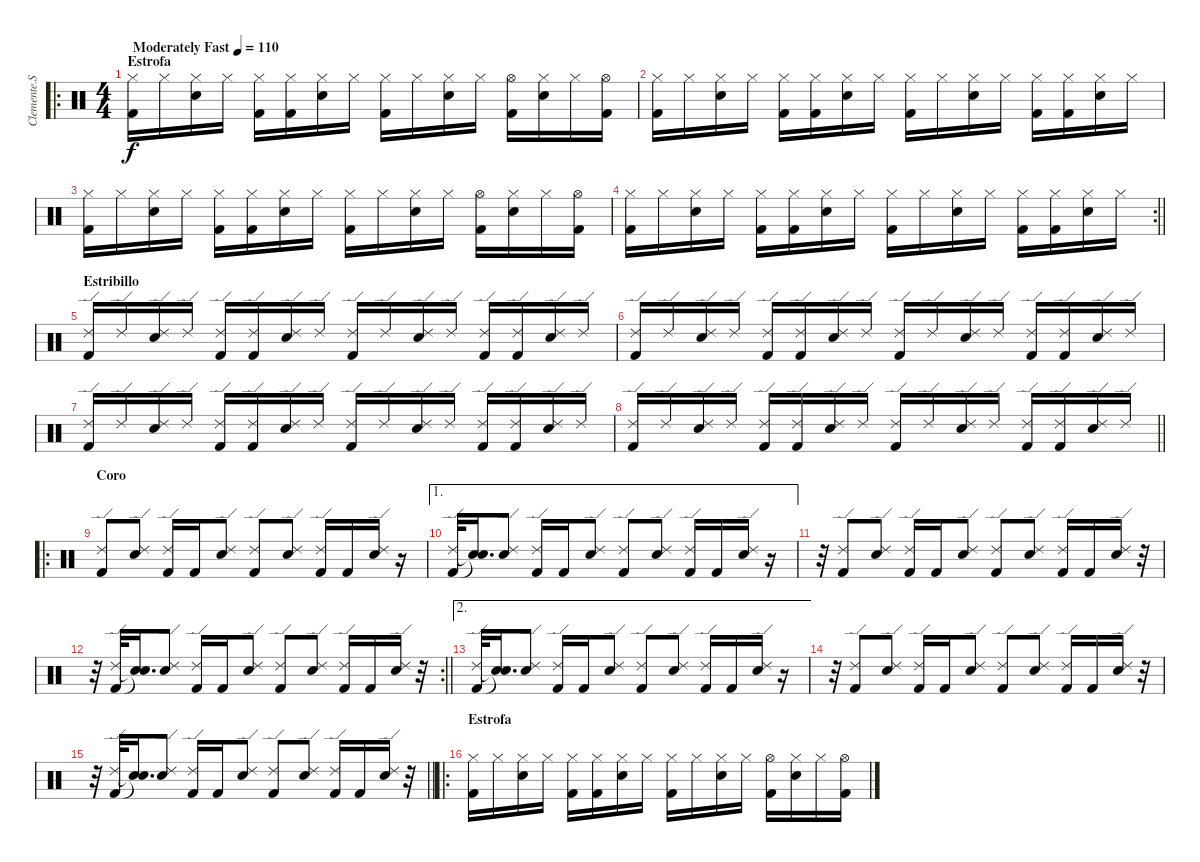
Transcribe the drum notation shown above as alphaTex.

\track ("Clemente.S" "Clemente.S") {instrument percussion}
\staff {score}
\articulation defaults
\ro
\ts (4 4)
\section ("" "Estrofa")
\tempo (110 "Moderately Fast")
\clef neutral
\ks c
("Hi-Hat (closed)" "Kick (hit) 2").16{dy f} "Hi-Hat (closed)".16 ("Hi-Hat (closed)" "Snare (hit) 2").16 "Hi-Hat (closed)".16 ("Hi-Hat (closed)" "Kick (hit) 2").16 ("Hi-Hat (closed)" "Kick (hit) 2").16 ("Hi-Hat (closed)" "Snare (hit) 2").16 "Hi-Hat (closed)".16 ("Hi-Hat (closed)" "Kick (hit) 2").16 "Hi-Hat (closed)".16 ("Hi-Hat (closed)" "Snare (hit) 2").16 "Hi-Hat (closed)".16 ("Hi-Hat (open)" "Kick (hit) 2").16 ("Hi-Hat (closed)" "Snare (hit) 2").16 "Hi-Hat (closed)".16 ("Hi-Hat (open)" "Kick (hit) 2").16 |
("Hi-Hat (closed)" "Kick (hit) 2").16 "Hi-Hat (closed)".16 ("Hi-Hat (closed)" "Snare (hit) 2").16 "Hi-Hat (closed)".16 ("Hi-Hat (closed)" "Kick (hit) 2").16 ("Hi-Hat (closed)" "Kick (hit) 2").16 ("Hi-Hat (closed)" "Snare (hit) 2").16 "Hi-Hat (closed)".16 ("Hi-Hat (closed)" "Kick (hit) 2").16 "Hi-Hat (closed)".16 ("Hi-Hat (closed)" "Snare (hit) 2").16 "Hi-Hat (closed)".16 ("Hi-Hat (closed)" "Kick (hit) 2").16 ("Hi-Hat (closed)" "Kick (hit) 2").16 ("Hi-Hat (closed)" "Snare (hit) 2").16 "Hi-Hat (closed)".16 |
("Hi-Hat (closed)" "Kick (hit) 2").16 "Hi-Hat (closed)".16 ("Hi-Hat (closed)" "Snare (hit) 2").16 "Hi-Hat (closed)".16 ("Hi-Hat (closed)" "Kick (hit) 2").16 ("Hi-Hat (closed)" "Kick (hit) 2").16 ("Hi-Hat (closed)" "Snare (hit) 2").16 "Hi-Hat (closed)".16 ("Hi-Hat (closed)" "Kick (hit) 2").16 "Hi-Hat (closed)".16 ("Hi-Hat (closed)" "Snare (hit) 2").16 "Hi-Hat (closed)".16 ("Hi-Hat (open)" "Kick (hit) 2").16 ("Hi-Hat (closed)" "Snare (hit) 2").16 "Hi-Hat (closed)".16 ("Hi-Hat (open)" "Kick (hit) 2").16 |
\rc 2
\barLineRight lightlight
("Hi-Hat (closed)" "Kick (hit) 2").16 "Hi-Hat (closed)".16 ("Hi-Hat (closed)" "Snare (hit) 2").16 "Hi-Hat (closed)".16 ("Hi-Hat (closed)" "Kick (hit) 2").16 ("Hi-Hat (closed)" "Kick (hit) 2").16 ("Hi-Hat (closed)" "Snare (hit) 2").16 "Hi-Hat (closed)".16 ("Hi-Hat (closed)" "Kick (hit) 2").16 "Hi-Hat (closed)".16 ("Hi-Hat (closed)" "Snare (hit) 2").16 "Hi-Hat (closed)".16 ("Hi-Hat (closed)" "Kick (hit) 2").16 ("Hi-Hat (closed)" "Kick (hit) 2").16 ("Hi-Hat (closed)" "Snare (hit) 2").16 "Hi-Hat (closed)".16 |
\section ("" "Estribillo")
("Ride (edge) 2" "Kick (hit) 2").16 "Ride (edge) 2".16 ("Ride (edge) 2" "Electric Snare (hit)").16 "Ride (edge) 2".16 ("Ride (edge) 2" "Kick (hit) 2").16 ("Ride (edge) 2" "Kick (hit) 2").16 ("Ride (edge) 2" "Electric Snare (hit)").16 "Ride (edge) 2".16 ("Ride (edge) 2" "Kick (hit) 2").16 "Ride (edge) 2".16 ("Ride (edge) 2" "Electric Snare (hit)").16 "Ride (edge) 2".16 ("Ride (edge) 2" "Kick (hit) 2").16 ("Ride (edge) 2" "Kick (hit) 2").16 ("Ride (edge) 2" "Electric Snare (hit)").16 "Ride (edge) 2".16 |
("Ride (edge) 2" "Kick (hit) 2").16 "Ride (edge) 2".16 ("Ride (edge) 2" "Electric Snare (hit)").16 "Ride (edge) 2".16 ("Ride (edge) 2" "Kick (hit) 2").16 ("Ride (edge) 2" "Kick (hit) 2").16 ("Ride (edge) 2" "Electric Snare (hit)").16 "Ride (edge) 2".16 ("Ride (edge) 2" "Kick (hit) 2").16 "Ride (edge) 2".16 ("Ride (edge) 2" "Electric Snare (hit)").16 "Ride (edge) 2".16 ("Ride (edge) 2" "Kick (hit) 2").16 ("Ride (edge) 2" "Kick (hit) 2").16 ("Ride (edge) 2" "Electric Snare (hit)").16 "Ride (edge) 2".16 |
("Ride (edge) 2" "Kick (hit) 2").16 "Ride (edge) 2".16 ("Ride (edge) 2" "Electric Snare (hit)").16 "Ride (edge) 2".16 ("Ride (edge) 2" "Kick (hit) 2").16 ("Ride (edge) 2" "Kick (hit) 2").16 ("Ride (edge) 2" "Electric Snare (hit)").16 "Ride (edge) 2".16 ("Ride (edge) 2" "Kick (hit) 2").16 "Ride (edge) 2".16 ("Ride (edge) 2" "Electric Snare (hit)").16 "Ride (edge) 2".16 ("Ride (edge) 2" "Kick (hit) 2").16 ("Ride (edge) 2" "Kick (hit) 2").16 ("Ride (edge) 2" "Electric Snare (hit)").16 "Ride (edge) 2".16 |
\barLineRight lightlight
("Ride (edge) 2" "Kick (hit) 2").16 "Ride (edge) 2".16 ("Ride (edge) 2" "Electric Snare (hit)").16 "Ride (edge) 2".16 ("Ride (edge) 2" "Kick (hit) 2").16 ("Ride (edge) 2" "Kick (hit) 2").16 ("Ride (edge) 2" "Electric Snare (hit)").16 "Ride (edge) 2".16 ("Ride (edge) 2" "Kick (hit) 2").16 "Ride (edge) 2".16 ("Ride (edge) 2" "Electric Snare (hit)").16 "Ride (edge) 2".16 ("Ride (edge) 2" "Kick (hit) 2").16 ("Ride (edge) 2" "Kick (hit) 2").16 ("Ride (edge) 2" "Electric Snare (hit)").16 "Ride (edge) 2".16 |
\ro
\section ("" "Coro")
("Ride (edge) 2" "Kick (hit) 2").8 ("Ride (edge) 2" "Electric Snare (hit)").8 ("Ride (edge) 2" "Kick (hit) 2").16 "Kick (hit) 2".16 ("Ride (edge) 2" "Electric Snare (hit)").8 ("Ride (edge) 2" "Kick (hit) 2").8 ("Ride (edge) 2" "Electric Snare (hit)").8 ("Ride (edge) 2" "Kick (hit) 2").16 "Kick (hit) 2".16 ("Ride (edge) 2" "Electric Snare (hit)").16 r.16 |
\ae 1
("Ride (edge) 2" "Kick (hit) 2").32 ("Snare (hit)"{t} "Snare (hit)"{t}).16{d} ("Ride (edge) 2" "Electric Snare (hit)").8 ("Ride (edge) 2" "Kick (hit) 2").16 "Kick (hit) 2".16 ("Ride (edge) 2" "Electric Snare (hit)").8 ("Ride (edge) 2" "Kick (hit) 2").8 ("Ride (edge) 2" "Electric Snare (hit)").8 ("Ride (edge) 2" "Kick (hit) 2").16 "Kick (hit) 2".16 ("Ride (edge) 2" "Electric Snare (hit)").16 r.16 |
r.32 ("Ride (edge) 2" "Kick (hit) 2").8 ("Ride (edge) 2" "Electric Snare (hit)").8 ("Ride (edge) 2" "Kick (hit) 2").16 "Kick (hit) 2".16 ("Ride (edge) 2" "Electric Snare (hit)").8 ("Ride (edge) 2" "Kick (hit) 2").8 ("Ride (edge) 2" "Electric Snare (hit)").8 ("Ride (edge) 2" "Kick (hit) 2").16 "Kick (hit) 2".16 ("Ride (edge) 2" "Electric Snare (hit)").16 r.32 |
\rc 2
\barLineRight lightlight
r.32 ("Ride (edge) 2" "Kick (hit) 2").32 ("Snare (hit)"{t} "Snare (hit)"{t}).16{d} ("Ride (edge) 2" "Electric Snare (hit)").8 ("Ride (edge) 2" "Kick (hit) 2").16 "Kick (hit) 2".16 ("Ride (edge) 2" "Electric Snare (hit)").8 ("Ride (edge) 2" "Kick (hit) 2").8 ("Ride (edge) 2" "Electric Snare (hit)").8 ("Ride (edge) 2" "Kick (hit) 2").16 "Kick (hit) 2".16 ("Ride (edge) 2" "Electric Snare (hit)").16 r.32 |
\ae 2
("Ride (edge) 2" "Kick (hit) 2").32 ("Snare (hit)"{t} "Snare (hit)"{t}).16{d} ("Ride (edge) 2" "Electric Snare (hit)").8 ("Ride (edge) 2" "Kick (hit) 2").16 "Kick (hit) 2".16 ("Ride (edge) 2" "Electric Snare (hit)").8 ("Ride (edge) 2" "Kick (hit) 2").8 ("Ride (edge) 2" "Electric Snare (hit)").8 ("Ride (edge) 2" "Kick (hit) 2").16 "Kick (hit) 2".16 ("Ride (edge) 2" "Electric Snare (hit)").16 r.16 |
r.32 ("Ride (edge) 2" "Kick (hit) 2").8 ("Ride (edge) 2" "Electric Snare (hit)").8 ("Ride (edge) 2" "Kick (hit) 2").16 "Kick (hit) 2".16 ("Ride (edge) 2" "Electric Snare (hit)").8 ("Ride (edge) 2" "Kick (hit) 2").8 ("Ride (edge) 2" "Electric Snare (hit)").8 ("Ride (edge) 2" "Kick (hit) 2").16 "Kick (hit) 2".16 ("Ride (edge) 2" "Electric Snare (hit)").16 r.32 |
\barLineRight lightlight
r.32 ("Ride (edge) 2" "Kick (hit) 2").32 ("Snare (hit)"{t} "Snare (hit)"{t}).16{d} ("Ride (edge) 2" "Electric Snare (hit)").8 ("Ride (edge) 2" "Kick (hit) 2").16 "Kick (hit) 2".16 ("Ride (edge) 2" "Electric Snare (hit)").8 ("Ride (edge) 2" "Kick (hit) 2").8 ("Ride (edge) 2" "Electric Snare (hit)").8 ("Ride (edge) 2" "Kick (hit) 2").16 "Kick (hit) 2".16 ("Ride (edge) 2" "Electric Snare (hit)").16 r.32 |
\ro
\section ("" "Estrofa")
("Hi-Hat (closed)" "Kick (hit) 2").16 "Hi-Hat (closed)".16 ("Hi-Hat (closed)" "Snare (hit) 2").16 "Hi-Hat (closed)".16 ("Hi-Hat (closed)" "Kick (hit) 2").16 ("Hi-Hat (closed)" "Kick (hit) 2").16 ("Hi-Hat (closed)" "Snare (hit) 2").16 "Hi-Hat (closed)".16 ("Hi-Hat (closed)" "Kick (hit) 2").16 "Hi-Hat (closed)".16 ("Hi-Hat (closed)" "Snare (hit) 2").16 "Hi-Hat (closed)".16 ("Hi-Hat (open)" "Kick (hit) 2").16 ("Hi-Hat (closed)" "Snare (hit) 2").16 "Hi-Hat (closed)".16 ("Hi-Hat (open)" "Kick (hit) 2").16
